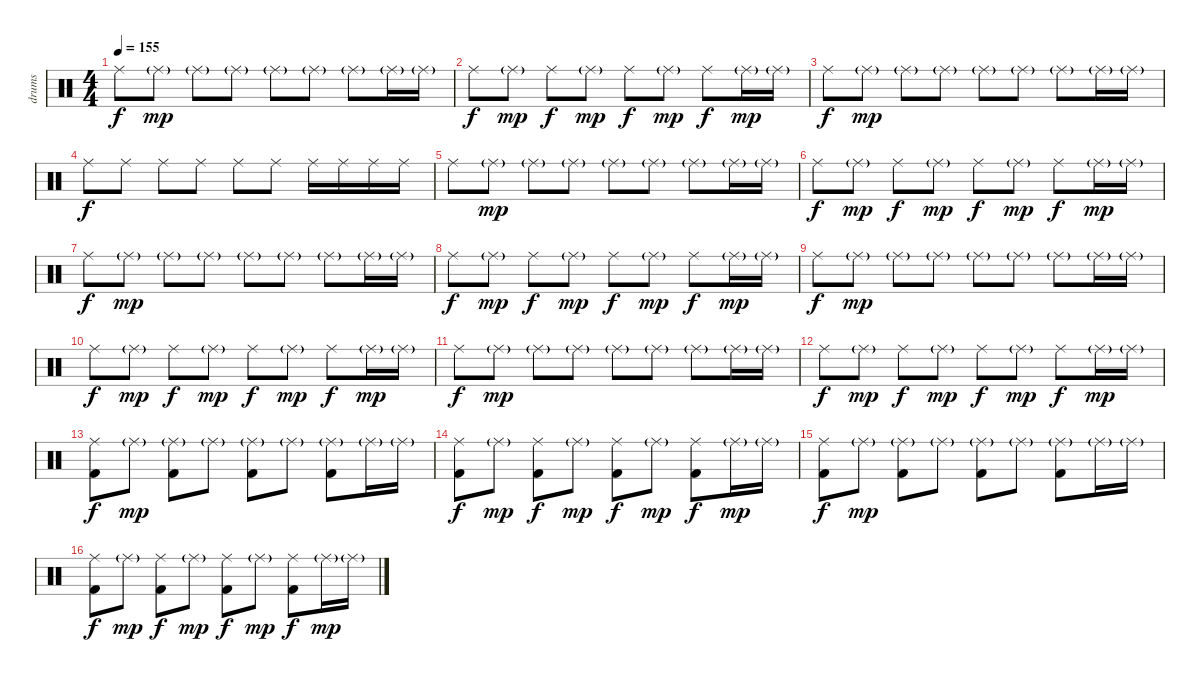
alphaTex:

\track ("drums" "drums") {instrument percussion}
\staff {score}
\articulation defaults
\ts (4 4)
\tempo 155
\clef neutral
\ks c "Ride (middle)".8{dy f} "Ride (middle)"{g}.8{dy mp} "Ride (middle)"{g}.8 "Ride (middle)"{g}.8 "Ride (middle)"{g}.8 "Ride (middle)"{g}.8 "Ride (middle)"{g}.8 "Ride (middle)"{g}.16 "Ride (middle)"{g}.16
|
"Ride (middle)".8{dy f} "Ride (middle)"{g}.8{dy mp} "Ride (middle)".8{dy f} "Ride (middle)"{g}.8{dy mp} "Ride (middle)".8{dy f} "Ride (middle)"{g}.8{dy mp} "Ride (middle)".8{dy f} "Ride (middle)"{g}.16{dy mp} "Ride (middle)"{g}.16 |
"Ride (middle)".8{dy f} "Ride (middle)"{g}.8{dy mp} "Ride (middle)"{g}.8 "Ride (middle)"{g}.8 "Ride (middle)"{g}.8 "Ride (middle)"{g}.8 "Ride (middle)"{g}.8 "Ride (middle)"{g}.16 "Ride (middle)"{g}.16 |
"Ride (middle)".8{dy f} "Ride (middle)".8 "Ride (middle)".8 "Ride (middle)".8 "Ride (middle)".8 "Ride (middle)".8 "Ride (middle)".16 "Ride (middle)".16 "Ride (middle)".16 "Ride (middle)".16 |
"Ride (middle)".8 "Ride (middle)"{g}.8{dy mp} "Ride (middle)"{g}.8 "Ride (middle)"{g}.8 "Ride (middle)"{g}.8 "Ride (middle)"{g}.8 "Ride (middle)"{g}.8 "Ride (middle)"{g}.16 "Ride (middle)"{g}.16 |
"Ride (middle)".8{dy f} "Ride (middle)"{g}.8{dy mp} "Ride (middle)".8{dy f} "Ride (middle)"{g}.8{dy mp} "Ride (middle)".8{dy f} "Ride (middle)"{g}.8{dy mp} "Ride (middle)".8{dy f} "Ride (middle)"{g}.16{dy mp} "Ride (middle)"{g}.16 |
"Ride (middle)".8{dy f} "Ride (middle)"{g}.8{dy mp} "Ride (middle)"{g}.8 "Ride (middle)"{g}.8 "Ride (middle)"{g}.8 "Ride (middle)"{g}.8 "Ride (middle)"{g}.8 "Ride (middle)"{g}.16 "Ride (middle)"{g}.16 |
"Ride (middle)".8{dy f} "Ride (middle)"{g}.8{dy mp} "Ride (middle)".8{dy f} "Ride (middle)"{g}.8{dy mp} "Ride (middle)".8{dy f} "Ride (middle)"{g}.8{dy mp} "Ride (middle)".8{dy f} "Ride (middle)"{g}.16{dy mp} "Ride (middle)"{g}.16 |
"Ride (middle)".8{dy f} "Ride (middle)"{g}.8{dy mp} "Ride (middle)"{g}.8 "Ride (middle)"{g}.8 "Ride (middle)"{g}.8 "Ride (middle)"{g}.8 "Ride (middle)"{g}.8 "Ride (middle)"{g}.16 "Ride (middle)"{g}.16 |
"Ride (middle)".8{dy f} "Ride (middle)"{g}.8{dy mp} "Ride (middle)".8{dy f} "Ride (middle)"{g}.8{dy mp} "Ride (middle)".8{dy f} "Ride (middle)"{g}.8{dy mp} "Ride (middle)".8{dy f} "Ride (middle)"{g}.16{dy mp} "Ride (middle)"{g}.16 |
"Ride (middle)".8{dy f} "Ride (middle)"{g}.8{dy mp} "Ride (middle)"{g}.8 "Ride (middle)"{g}.8 "Ride (middle)"{g}.8 "Ride (middle)"{g}.8 "Ride (middle)"{g}.8 "Ride (middle)"{g}.16 "Ride (middle)"{g}.16 |
"Ride (middle)".8{dy f} "Ride (middle)"{g}.8{dy mp} "Ride (middle)".8{dy f} "Ride (middle)"{g}.8{dy mp} "Ride (middle)".8{dy f} "Ride (middle)"{g}.8{dy mp} "Ride (middle)".8{dy f} "Ride (middle)"{g}.16{dy mp} "Ride (middle)"{g}.16 |
("Ride (middle)" "Kick (hit) 2").8{dy f} "Ride (middle)"{g}.8{dy mp} ("Ride (middle)"{g} "Kick (hit) 2").8 "Ride (middle)"{g}.8 ("Ride (middle)"{g} "Kick (hit) 2").8 "Ride (middle)"{g}.8 ("Ride (middle)"{g} "Kick (hit) 2").8 "Ride (middle)"{g}.16 "Ride (middle)"{g}.16 |
("Ride (middle)" "Kick (hit) 2").8{dy f} "Ride (middle)"{g}.8{dy mp} ("Ride (middle)" "Kick (hit) 2").8{dy f} "Ride (middle)"{g}.8{dy mp} ("Ride (middle)" "Kick (hit) 2").8{dy f} "Ride (middle)"{g}.8{dy mp} ("Ride (middle)" "Kick (hit) 2").8{dy f} "Ride (middle)"{g}.16{dy mp} "Ride (middle)"{g}.16 |
("Ride (middle)" "Kick (hit) 2").8{dy f} "Ride (middle)"{g}.8{dy mp} ("Ride (middle)"{g} "Kick (hit) 2").8 "Ride (middle)"{g}.8 ("Ride (middle)"{g} "Kick (hit) 2").8 "Ride (middle)"{g}.8 ("Ride (middle)"{g} "Kick (hit) 2").8 "Ride (middle)"{g}.16 "Ride (middle)"{g}.16 |
("Ride (middle)" "Kick (hit) 2").8{dy f} "Ride (middle)"{g}.8{dy mp} ("Ride (middle)" "Kick (hit) 2").8{dy f} "Ride (middle)"{g}.8{dy mp} ("Ride (middle)" "Kick (hit) 2").8{dy f} "Ride (middle)"{g}.8{dy mp} ("Ride (middle)" "Kick (hit) 2").8{dy f} "Ride (middle)"{g}.16{dy mp} "Ride (middle)"{g}.16
